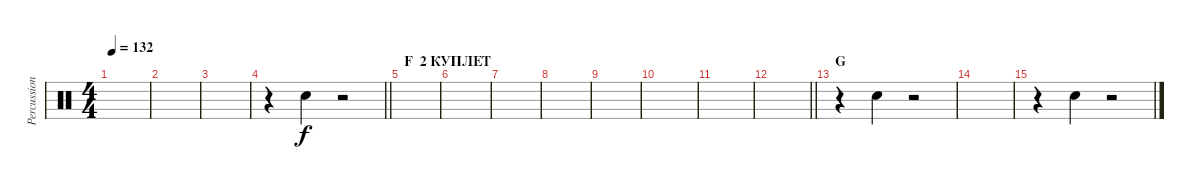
\track ("Percussions" "Percussion") {instrument percussion}
\staff {score}
\articulation defaults
\ts (4 4)
\tempo 132
\clef neutral
\ks c
|
|
|
\barLineRight lightlight
r.4 "Snare (hit) 2".4 r.2 |
\section ("" "F  2 КУПЛЕТ")
|
|
|
|
|
|
|
\barLineRight lightlight
|
\section ("" "G")
r.4 "Snare (hit) 2".4 r.2 |
|
r.4 "Snare (hit) 2".4 r.2
